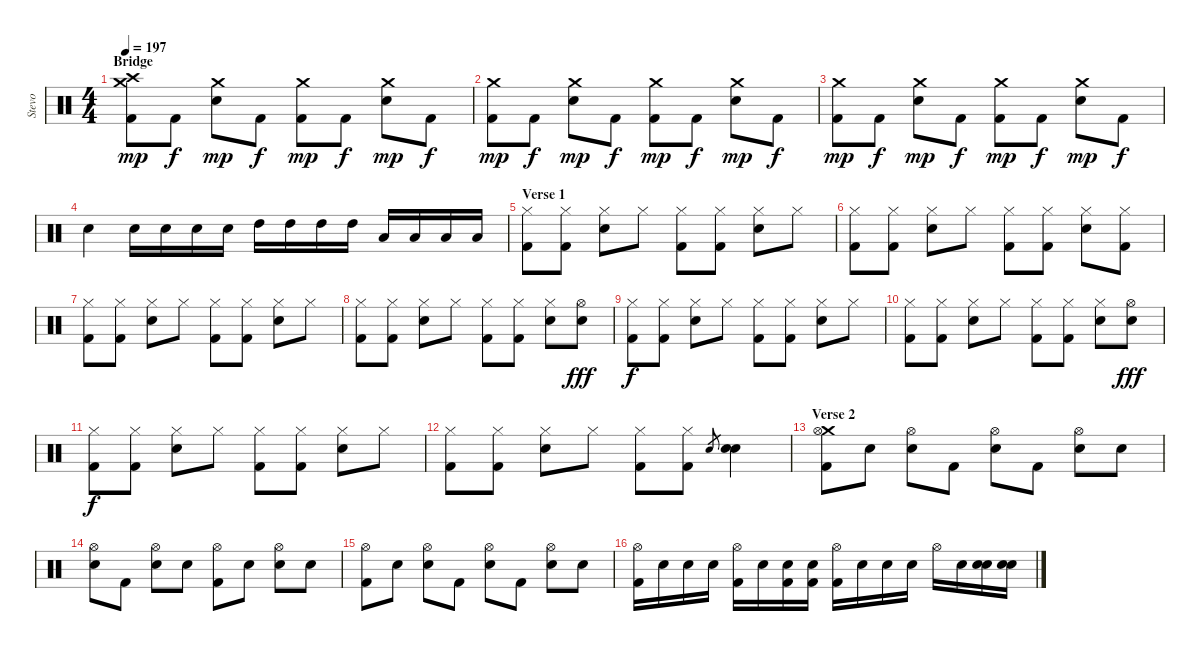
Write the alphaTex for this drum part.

\track ("Stevo" "Stevo") {instrument percussion}
\staff {score}
\articulation defaults
\ts (4 4)
\section ("" "Bridge")
\tempo 197
\clef neutral
\ks c
("Crash high (hit)" "Crash medium (hit)" "Kick (hit) 2").8{dy mp} "Kick (hit) 2".8{dy f} ("Crash medium (hit)" "Electric Snare (hit)").8{dy mp} "Kick (hit) 2".8{dy f} ("Crash medium (hit)" "Kick (hit) 2").8{dy mp} "Kick (hit) 2".8{dy f} ("Crash medium (hit)" "Electric Snare (hit)").8{dy mp} "Kick (hit) 2".8{dy f} |
("Crash medium (hit)" "Kick (hit) 2").8{dy mp} "Kick (hit) 2".8{dy f} ("Crash medium (hit)" "Electric Snare (hit)").8{dy mp} "Kick (hit) 2".8{dy f} ("Crash medium (hit)" "Kick (hit) 2").8{dy mp} "Kick (hit) 2".8{dy f} ("Crash medium (hit)" "Electric Snare (hit)").8{dy mp} "Kick (hit) 2".8{dy f} |
("Crash medium (hit)" "Kick (hit) 2").8{dy mp} "Kick (hit) 2".8{dy f} ("Crash medium (hit)" "Electric Snare (hit)").8{dy mp} "Kick (hit) 2".8{dy f} ("Crash medium (hit)" "Kick (hit) 2").8{dy mp} "Kick (hit) 2".8{dy f} ("Crash medium (hit)" "Electric Snare (hit)").8{dy mp} "Kick (hit) 2".8{dy f} |
"Electric Snare (hit)".4 "Electric Snare (hit)".16 "Electric Snare (hit)".16 "Electric Snare (hit)".16 "Electric Snare (hit)".16 "High Tom (hit)".16 "High Tom (hit)".16 "High Tom (hit)".16 "High Tom (hit)".16 "Low Tom (hit)".16 "Low Tom (hit)".16 "Low Tom (hit)".16 "Low Tom (hit)".16 |
\section ("" "Verse 1")
("Hi-Hat (closed)" "Kick (hit) 2").8 ("Hi-Hat (closed)" "Kick (hit) 2").8 ("Hi-Hat (closed)" "Electric Snare (hit)").8 "Hi-Hat (closed)".8 ("Hi-Hat (closed)" "Kick (hit) 2").8 ("Hi-Hat (closed)" "Kick (hit) 2").8 ("Hi-Hat (closed)" "Electric Snare (hit)").8 "Hi-Hat (closed)".8 |
("Hi-Hat (closed)" "Kick (hit) 2").8 ("Hi-Hat (closed)" "Kick (hit) 2").8 ("Hi-Hat (closed)" "Electric Snare (hit)").8 "Hi-Hat (closed)".8 ("Hi-Hat (closed)" "Kick (hit) 2").8 ("Hi-Hat (closed)" "Kick (hit) 2").8 ("Hi-Hat (closed)" "Electric Snare (hit)").8 ("Hi-Hat (closed)" "Kick (hit) 2").8 |
("Hi-Hat (closed)" "Kick (hit) 2").8 ("Hi-Hat (closed)" "Kick (hit) 2").8 ("Hi-Hat (closed)" "Electric Snare (hit)").8 "Hi-Hat (closed)".8 ("Hi-Hat (closed)" "Kick (hit) 2").8 ("Hi-Hat (closed)" "Kick (hit) 2").8 ("Hi-Hat (closed)" "Electric Snare (hit)").8 "Hi-Hat (closed)".8 |
("Hi-Hat (closed)" "Kick (hit) 2").8 ("Hi-Hat (closed)" "Kick (hit) 2").8 ("Hi-Hat (closed)" "Electric Snare (hit)").8 "Hi-Hat (closed)".8 ("Hi-Hat (closed)" "Kick (hit) 2").8 ("Hi-Hat (closed)" "Kick (hit) 2").8 ("Hi-Hat (closed)" "Electric Snare (hit)").8 ("Hi-Hat (open)" "Electric Snare (hit)").8{dy fff} |
("Hi-Hat (closed)" "Kick (hit) 2").8{dy f} ("Hi-Hat (closed)" "Kick (hit) 2").8 ("Hi-Hat (closed)" "Electric Snare (hit)").8 "Hi-Hat (closed)".8 ("Hi-Hat (closed)" "Kick (hit) 2").8 ("Hi-Hat (closed)" "Kick (hit) 2").8 ("Hi-Hat (closed)" "Electric Snare (hit)").8 "Hi-Hat (closed)".8 |
("Hi-Hat (closed)" "Kick (hit) 2").8 ("Hi-Hat (closed)" "Kick (hit) 2").8 ("Hi-Hat (closed)" "Electric Snare (hit)").8 "Hi-Hat (closed)".8 ("Hi-Hat (closed)" "Kick (hit) 2").8 ("Hi-Hat (closed)" "Kick (hit) 2").8 ("Hi-Hat (closed)" "Electric Snare (hit)").8 ("Hi-Hat (open)" "Electric Snare (hit)").8{dy fff} |
("Hi-Hat (closed)" "Kick (hit) 2").8{dy f} ("Hi-Hat (closed)" "Kick (hit) 2").8 ("Hi-Hat (closed)" "Electric Snare (hit)").8 "Hi-Hat (closed)".8 ("Hi-Hat (closed)" "Kick (hit) 2").8 ("Hi-Hat (closed)" "Kick (hit) 2").8 ("Hi-Hat (closed)" "Electric Snare (hit)").8 "Hi-Hat (closed)".8 |
("Hi-Hat (closed)" "Kick (hit) 2").8 ("Hi-Hat (closed)" "Kick (hit) 2").8 ("Hi-Hat (closed)" "Electric Snare (hit)").8 "Hi-Hat (closed)".8 ("Hi-Hat (closed)" "Kick (hit) 2").8 ("Hi-Hat (closed)" "Kick (hit) 2").8 "Electric Snare (hit)".8{gr} ("Electric Snare (hit)" "Electric Snare (hit)").4 |
\section ("" "Verse 2")
("Crash medium (hit)" "Hi-Hat (open)" "Kick (hit) 2").8 "Snare (hit)".8 ("Hi-Hat (open)" "Electric Snare (hit)").8 "Kick (hit) 2".8 ("Hi-Hat (open)" "Snare (hit)").8 "Kick (hit) 2".8 ("Hi-Hat (open)" "Electric Snare (hit)").8 "Snare (hit)".8 |
("Hi-Hat (open)" "Snare (hit)").8 "Kick (hit) 2".8 ("Hi-Hat (open)" "Electric Snare (hit)").8 "Snare (hit)".8 ("Hi-Hat (open)" "Kick (hit) 2").8 "Snare (hit)".8 ("Hi-Hat (open)" "Electric Snare (hit)").8 "Snare (hit)".8 |
("Hi-Hat (open)" "Kick (hit) 2").8 "Snare (hit)".8 ("Hi-Hat (open)" "Electric Snare (hit)").8 "Kick (hit) 2".8 ("Hi-Hat (open)" "Snare (hit)").8 "Kick (hit) 2".8 ("Hi-Hat (open)" "Electric Snare (hit)").8 "Snare (hit)".8 |
("Hi-Hat (open)" "Kick (hit) 2").16 "Snare (hit)".16 "Snare (hit)".16 "Snare (hit)".16 ("Hi-Hat (open)" "Kick (hit) 2").16 "Snare (hit)".16 ("Snare (hit)" "Kick (hit) 2").16 ("Snare (hit)" "Kick (hit) 2").16 ("Hi-Hat (open)" "Kick (hit) 2").16 "Snare (hit)".16 "Snare (hit)".16 "Snare (hit)".16 "Hi-Hat (open)".16 "Snare (hit)".16 ("Snare (hit)" "Electric Snare (hit)").16 ("Snare (hit)" "Electric Snare (hit)").16
